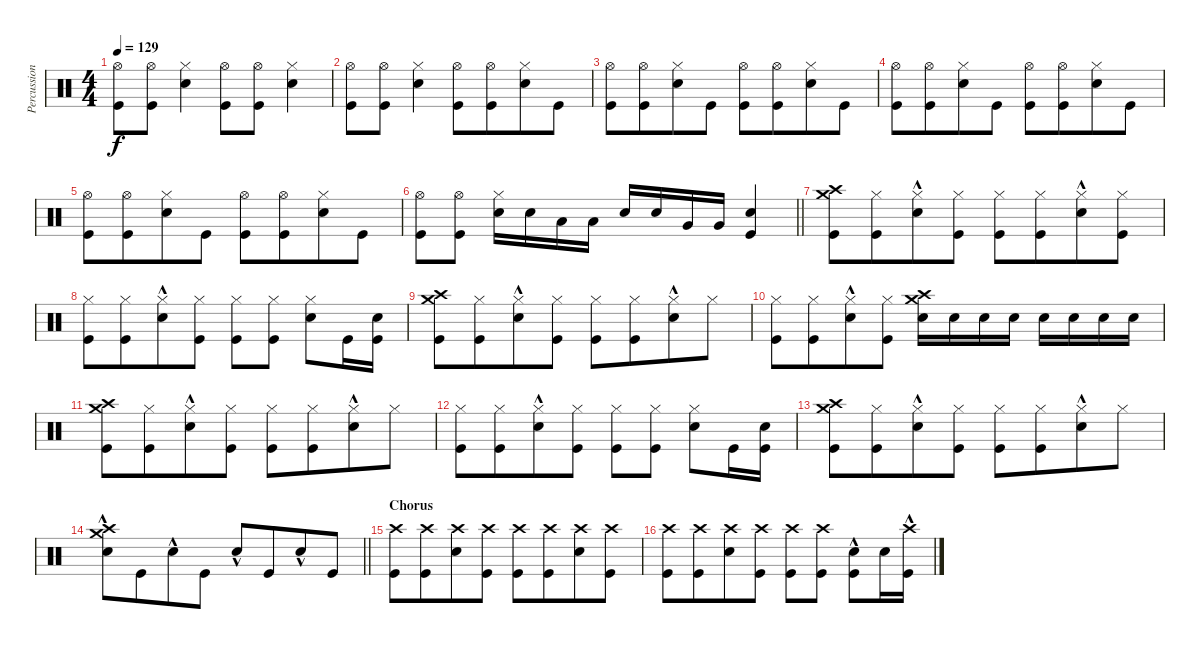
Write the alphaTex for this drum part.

\track ("Percussion" "Percussion") {instrument percussion}
\staff {score}
\articulation defaults
\ts (4 4)
\tempo 129
\clef neutral
\ks c
("Hi-Hat (open)" "Kick (hit)").8{dy f} ("Hi-Hat (open)" "Kick (hit)").8 ("Hi-Hat (closed)" "Snare (hit) 2").4 ("Hi-Hat (open)" "Kick (hit)").8 ("Hi-Hat (open)" "Kick (hit)").8 ("Hi-Hat (closed)" "Snare (hit) 2").4 |
("Hi-Hat (open)" "Kick (hit)").8 ("Hi-Hat (open)" "Kick (hit)").8 ("Hi-Hat (closed)" "Snare (hit) 2").4 ("Hi-Hat (open)" "Kick (hit)").8 ("Hi-Hat (open)" "Kick (hit)").8{beam merge} ("Hi-Hat (closed)" "Snare (hit) 2").8 "Kick (hit)".8 |
("Hi-Hat (open)" "Kick (hit)").8 ("Hi-Hat (open)" "Kick (hit)").8{beam merge} ("Hi-Hat (closed)" "Snare (hit) 2").8 "Kick (hit)".8 ("Hi-Hat (open)" "Kick (hit)").8 ("Hi-Hat (open)" "Kick (hit)").8{beam merge} ("Hi-Hat (closed)" "Snare (hit) 2").8 "Kick (hit)".8 |
("Hi-Hat (open)" "Kick (hit)").8 ("Hi-Hat (open)" "Kick (hit)").8{beam merge} ("Hi-Hat (closed)" "Snare (hit) 2").8 "Kick (hit)".8 ("Hi-Hat (open)" "Kick (hit)").8 ("Hi-Hat (open)" "Kick (hit)").8{beam merge} ("Hi-Hat (closed)" "Snare (hit) 2").8 "Kick (hit)".8 |
("Hi-Hat (open)" "Kick (hit)").8 ("Hi-Hat (open)" "Kick (hit)").8{beam merge} ("Hi-Hat (closed)" "Snare (hit) 2").8 "Kick (hit)".8 ("Hi-Hat (open)" "Kick (hit)").8 ("Hi-Hat (open)" "Kick (hit)").8{beam merge} ("Hi-Hat (closed)" "Snare (hit) 2").8 "Kick (hit)".8 |
\barLineRight lightlight
("Hi-Hat (open)" "Kick (hit)").8 ("Hi-Hat (open)" "Kick (hit)").8 ("Hi-Hat (closed)" "Snare (hit) 2").16 "Snare (hit) 2".16 "Low Tom (hit)".16 "Low Tom (hit)".16 "Snare (hit) 2".16 "Snare (hit) 2".16 "Very Low Tom (hit)".16 "Very Low Tom (hit)".16 ("Snare (hit) 2" "Kick (hit)").4 |
("Crash medium (hit)" "Crash high (hit)" "Kick (hit)").8 ("Hi-Hat (closed)" "Kick (hit)").8{beam merge} ("Hi-Hat (closed)" "Snare (hit) 2"{hac}).8 ("Hi-Hat (closed)" "Kick (hit)").8 ("Hi-Hat (closed)" "Kick (hit)").8 ("Hi-Hat (closed)" "Kick (hit)").8{beam merge} ("Hi-Hat (closed)" "Snare (hit) 2"{hac}).8 ("Hi-Hat (closed)" "Kick (hit)").8 |
("Hi-Hat (closed)" "Kick (hit)").8 ("Hi-Hat (closed)" "Kick (hit)").8{beam merge} ("Hi-Hat (closed)" "Snare (hit) 2"{hac}).8 ("Hi-Hat (closed)" "Kick (hit)").8 ("Hi-Hat (closed)" "Kick (hit)").8 ("Hi-Hat (closed)" "Kick (hit)").8 ("Hi-Hat (closed)" "Snare (hit) 2").8 "Kick (hit)".16 ("Snare (hit) 2" "Kick (hit)").16 |
("Crash medium (hit)" "Crash high (hit)" "Kick (hit)").8 ("Hi-Hat (closed)" "Kick (hit)").8{beam merge} ("Hi-Hat (closed)" "Snare (hit) 2"{hac}).8 ("Hi-Hat (closed)" "Kick (hit)").8 ("Hi-Hat (closed)" "Kick (hit)").8 ("Hi-Hat (closed)" "Kick (hit)").8{beam merge} ("Hi-Hat (closed)" "Snare (hit) 2"{hac}).8 "Hi-Hat (closed)".8 |
("Hi-Hat (closed)" "Kick (hit)").8 ("Hi-Hat (closed)" "Kick (hit)").8{beam merge} ("Hi-Hat (closed)" "Snare (hit) 2"{hac}).8 ("Hi-Hat (closed)" "Kick (hit)").8 ("Crash medium (hit)" "Crash high (hit)" "Snare (hit) 2").16 "Snare (hit) 2".16 "Snare (hit) 2".16 "Snare (hit) 2".16 "Snare (hit) 2".16 "Snare (hit) 2".16 "Snare (hit) 2".16 "Snare (hit) 2".16 |
("Crash medium (hit)" "Crash high (hit)" "Kick (hit)").8 ("Hi-Hat (closed)" "Kick (hit)").8{beam merge} ("Hi-Hat (closed)" "Snare (hit) 2"{hac}).8 ("Hi-Hat (closed)" "Kick (hit)").8 ("Hi-Hat (closed)" "Kick (hit)").8 ("Hi-Hat (closed)" "Kick (hit)").8{beam merge} ("Hi-Hat (closed)" "Snare (hit) 2"{hac}).8 "Hi-Hat (closed)".8 |
("Hi-Hat (closed)" "Kick (hit)").8 ("Hi-Hat (closed)" "Kick (hit)").8{beam merge} ("Hi-Hat (closed)" "Snare (hit) 2"{hac}).8 ("Hi-Hat (closed)" "Kick (hit)").8 ("Hi-Hat (closed)" "Kick (hit)").8 ("Hi-Hat (closed)" "Kick (hit)").8 ("Hi-Hat (closed)" "Snare (hit) 2").8 "Kick (hit)".16 ("Snare (hit) 2" "Kick (hit)").16 |
("Crash medium (hit)" "Crash high (hit)" "Kick (hit)").8 ("Hi-Hat (closed)" "Kick (hit)").8{beam merge} ("Hi-Hat (closed)" "Snare (hit) 2"{hac}).8 ("Hi-Hat (closed)" "Kick (hit)").8 ("Hi-Hat (closed)" "Kick (hit)").8 ("Hi-Hat (closed)" "Kick (hit)").8{beam merge} ("Hi-Hat (closed)" "Snare (hit) 2"{hac}).8 "Hi-Hat (closed)".8 |
\barLineRight lightlight
("Crash medium (hit)" "Crash high (hit)" "Snare (hit) 2"{hac}).8 "Kick (hit)".8{beam merge} "Snare (hit) 2"{hac}.8 "Kick (hit)".8 "Snare (hit) 2"{hac}.8 "Kick (hit)".8{beam merge} "Snare (hit) 2"{hac}.8 "Kick (hit)".8 |
\section ("" "Chorus")
("Crash high (hit)" "Kick (hit)").8 ("Crash high (hit)" "Kick (hit)").8{beam merge} ("Crash high (hit)" "Snare (hit) 2").8 ("Crash high (hit)" "Kick (hit)").8 ("Crash high (hit)" "Kick (hit)").8 ("Crash high (hit)" "Kick (hit)").8{beam merge} ("Crash high (hit)" "Snare (hit) 2").8 ("Crash high (hit)" "Kick (hit)").8 |
("Crash high (hit)" "Kick (hit)").8 ("Crash high (hit)" "Kick (hit)").8{beam merge} ("Crash high (hit)" "Snare (hit) 2").8 ("Crash high (hit)" "Kick (hit)").8 ("Crash high (hit)" "Kick (hit)").8 ("Crash high (hit)" "Kick (hit)").8 ("Snare (hit) 2" "Kick (hit)"{hac}).8 "Snare (hit) 2".16 ("Crash high (hit)" "Kick (hit)"{hac}).16
